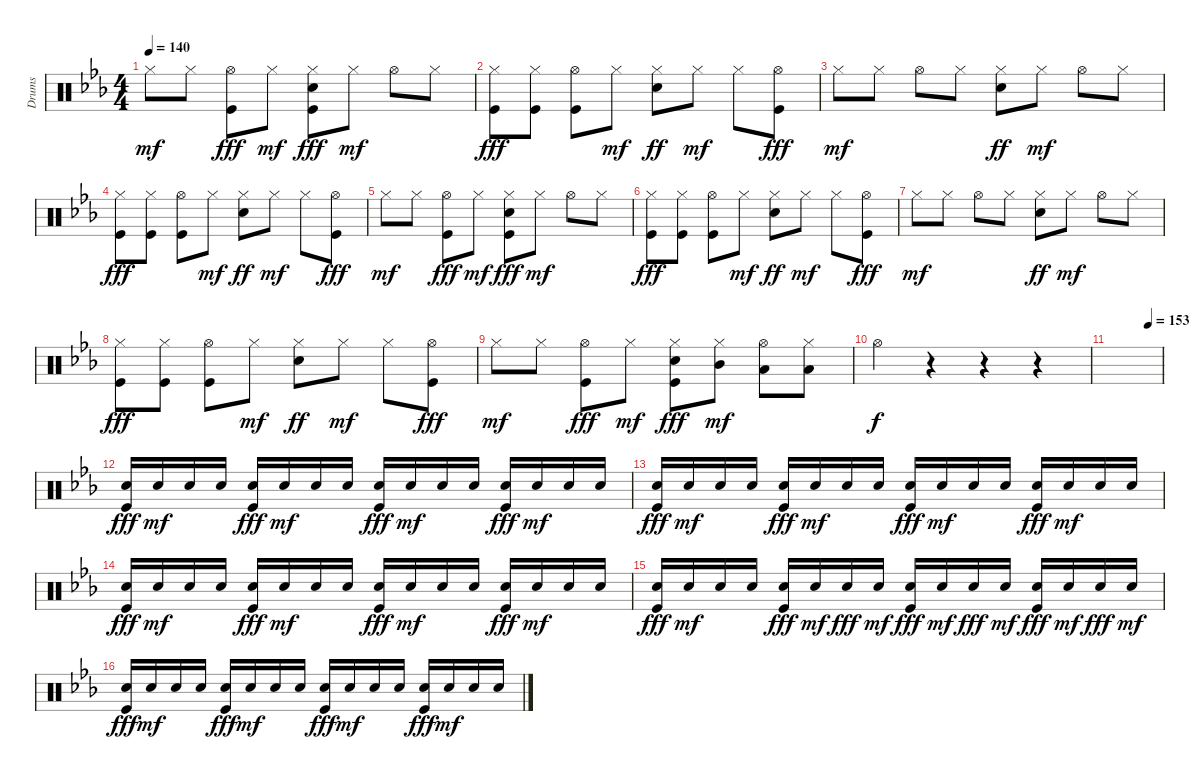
\track ("Drums" "Drums") {instrument percussion}
\staff {score}
\articulation defaults
\ts (4 4)
\tempo 140
\clef neutral
\ks cminor "Hi-Hat (closed)".8{dy mf} "Hi-Hat (closed)".8
("Hi-Hat (open)" "Kick (hit)").8{dy fff} "Hi-Hat (closed)".8{dy mf} ("Hi-Hat (closed)" "Snare (hit) 2" "Kick (hit)").8{dy fff} "Hi-Hat (closed)".8{dy mf} "Hi-Hat (open)".8 "Hi-Hat (closed)".8 |
("Hi-Hat (closed)" "Kick (hit)").8{dy fff} ("Hi-Hat (closed)" "Kick (hit)").8 ("Hi-Hat (open)" "Kick (hit)").8 "Hi-Hat (closed)".8{dy mf} ("Hi-Hat (closed)" "Snare (hit) 2").8{dy ff} "Hi-Hat (closed)".8{dy mf} "Hi-Hat (closed)".8 ("Hi-Hat (open)" "Kick (hit)").8{dy fff} |
"Hi-Hat (closed)".8{dy mf} "Hi-Hat (closed)".8 "Hi-Hat (open)".8 "Hi-Hat (closed)".8 ("Hi-Hat (closed)" "Snare (hit) 2").8{dy ff} "Hi-Hat (closed)".8{dy mf} "Hi-Hat (open)".8 "Hi-Hat (closed)".8 |
("Hi-Hat (closed)" "Kick (hit)").8{dy fff} ("Hi-Hat (closed)" "Kick (hit)").8 ("Hi-Hat (open)" "Kick (hit)").8 "Hi-Hat (closed)".8{dy mf} ("Hi-Hat (closed)" "Snare (hit) 2").8{dy ff} "Hi-Hat (closed)".8{dy mf} "Hi-Hat (closed)".8 ("Hi-Hat (open)" "Kick (hit)").8{dy fff} |
"Hi-Hat (closed)".8{dy mf} "Hi-Hat (closed)".8 ("Hi-Hat (open)" "Kick (hit)").8{dy fff} "Hi-Hat (closed)".8{dy mf} ("Hi-Hat (closed)" "Snare (hit) 2" "Kick (hit)").8{dy fff} "Hi-Hat (closed)".8{dy mf} "Hi-Hat (open)".8 "Hi-Hat (closed)".8 |
("Hi-Hat (closed)" "Kick (hit)").8{dy fff} ("Hi-Hat (closed)" "Kick (hit)").8 ("Hi-Hat (open)" "Kick (hit)").8 "Hi-Hat (closed)".8{dy mf} ("Hi-Hat (closed)" "Snare (hit) 2").8{dy ff} "Hi-Hat (closed)".8{dy mf} "Hi-Hat (closed)".8 ("Hi-Hat (open)" "Kick (hit)").8{dy fff} |
"Hi-Hat (closed)".8{dy mf} "Hi-Hat (closed)".8 "Hi-Hat (open)".8 "Hi-Hat (closed)".8 ("Hi-Hat (closed)" "Snare (hit) 2").8{dy ff} "Hi-Hat (closed)".8{dy mf} "Hi-Hat (open)".8 "Hi-Hat (closed)".8 |
("Hi-Hat (closed)" "Kick (hit)").8{dy fff} ("Hi-Hat (closed)" "Kick (hit)").8 ("Hi-Hat (open)" "Kick (hit)").8 "Hi-Hat (closed)".8{dy mf} ("Hi-Hat (closed)" "Snare (hit) 2").8{dy ff} "Hi-Hat (closed)".8{dy mf} "Hi-Hat (closed)".8 ("Hi-Hat (open)" "Kick (hit)").8{dy fff} |
"Hi-Hat (closed)".8{dy mf} "Hi-Hat (closed)".8 ("Hi-Hat (open)" "Kick (hit)").8{dy fff} "Hi-Hat (closed)".8{dy mf} ("Hi-Hat (closed)" "Snare (hit) 2" "Kick (hit)").8{dy fff} ("Hi-Hat (closed)" "Mid Tom (hit)").8{dy mf} ("Hi-Hat (open)" "Low Tom (hit)").8 ("Hi-Hat (closed)" "Low Floor Tom (hit)").8 |
"Hi-Hat (open)".4{dy f} r.4 r.4 r.4 |
\tempo (153 0.75)
|
("Snare (hit) 2" "Kick (hit)").16{dy fff} "Snare (hit) 2".16{dy mf} "Snare (hit) 2".16 "Snare (hit) 2".16 ("Snare (hit) 2" "Kick (hit)").16{dy fff} "Snare (hit) 2".16{dy mf} "Snare (hit) 2".16 "Snare (hit) 2".16 ("Snare (hit) 2" "Kick (hit)").16{dy fff} "Snare (hit) 2".16{dy mf} "Snare (hit) 2".16 "Snare (hit) 2".16 ("Snare (hit) 2" "Kick (hit)").16{dy fff} "Snare (hit) 2".16{dy mf} "Snare (hit) 2".16 "Snare (hit) 2".16 |
("Snare (hit) 2" "Kick (hit)").16{dy fff} "Snare (hit) 2".16{dy mf} "Snare (hit) 2".16 "Snare (hit) 2".16 ("Snare (hit) 2" "Kick (hit)").16{dy fff} "Snare (hit) 2".16{dy mf} "Snare (hit) 2".16 "Snare (hit) 2".16 ("Snare (hit) 2" "Kick (hit)").16{dy fff} "Snare (hit) 2".16{dy mf} "Snare (hit) 2".16 "Snare (hit) 2".16 ("Snare (hit) 2" "Kick (hit)").16{dy fff} "Snare (hit) 2".16{dy mf} "Snare (hit) 2".16 "Snare (hit) 2".16 |
("Snare (hit) 2" "Kick (hit)").16{dy fff} "Snare (hit) 2".16{dy mf} "Snare (hit) 2".16 "Snare (hit) 2".16 ("Snare (hit) 2" "Kick (hit)").16{dy fff} "Snare (hit) 2".16{dy mf} "Snare (hit) 2".16 "Snare (hit) 2".16 ("Snare (hit) 2" "Kick (hit)").16{dy fff} "Snare (hit) 2".16{dy mf} "Snare (hit) 2".16 "Snare (hit) 2".16 ("Snare (hit) 2" "Kick (hit)").16{dy fff} "Snare (hit) 2".16{dy mf} "Snare (hit) 2".16 "Snare (hit) 2".16 |
("Snare (hit) 2" "Kick (hit)").16{dy fff} "Snare (hit) 2".16{dy mf} "Snare (hit) 2".16 "Snare (hit) 2".16 ("Snare (hit) 2" "Kick (hit)").16{dy fff} "Snare (hit) 2".16{dy mf} "Snare (hit) 2".16{dy fff} "Snare (hit) 2".16{dy mf} ("Snare (hit) 2" "Kick (hit)").16{dy fff} "Snare (hit) 2".16{dy mf} "Snare (hit) 2".16{dy fff} "Snare (hit) 2".16{dy mf} ("Snare (hit) 2" "Kick (hit)").16{dy fff} "Snare (hit) 2".16{dy mf} "Snare (hit) 2".16{dy fff} "Snare (hit) 2".16{dy mf} |
("Snare (hit) 2" "Kick (hit)").16{dy fff} "Snare (hit) 2".16{dy mf} "Snare (hit) 2".16 "Snare (hit) 2".16 ("Snare (hit) 2" "Kick (hit)").16{dy fff} "Snare (hit) 2".16{dy mf} "Snare (hit) 2".16 "Snare (hit) 2".16 ("Snare (hit) 2" "Kick (hit)").16{dy fff} "Snare (hit) 2".16{dy mf} "Snare (hit) 2".16 "Snare (hit) 2".16 ("Snare (hit) 2" "Kick (hit)").16{dy fff} "Snare (hit) 2".16{dy mf} "Snare (hit) 2".16 "Snare (hit) 2".16
